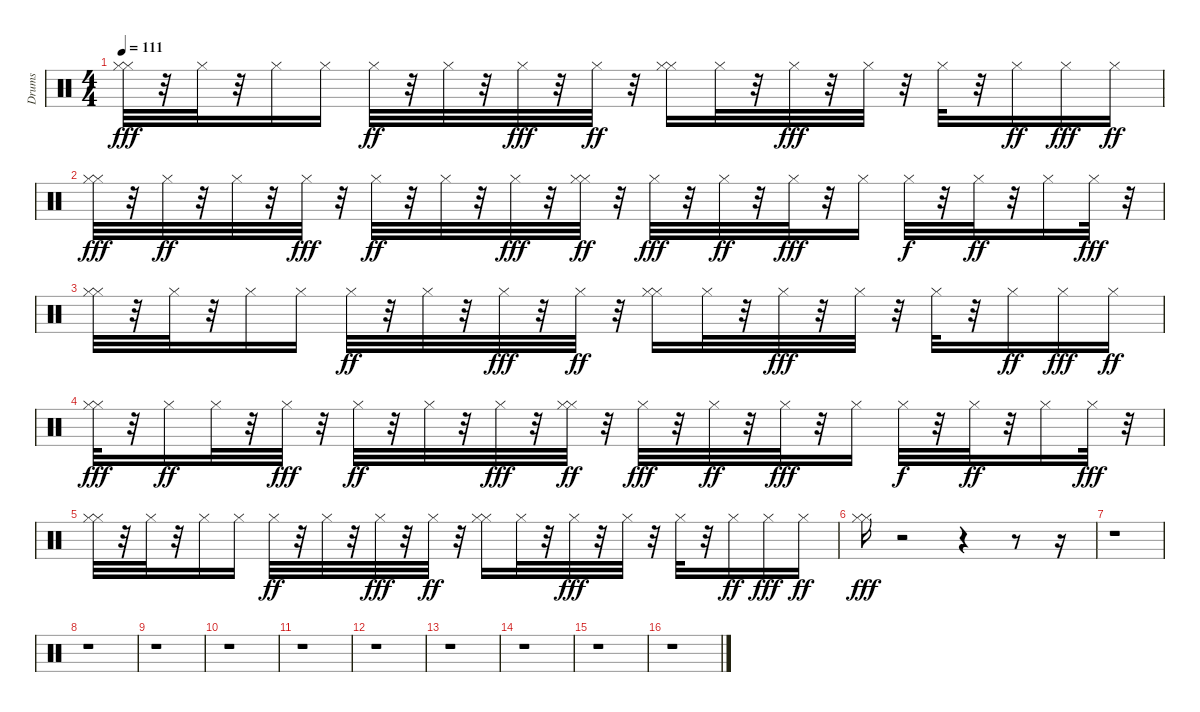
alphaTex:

\track ("Drums" "Drums") {instrument percussion}
\staff {score}
\articulation defaults
\ts (4 4)
\tempo 111
\clef neutral
\ks c
("Hi-Hat (closed)" "Hi-Hat (closed)").32{dy fff} r.32 "Hi-Hat (closed)".32 r.32 "Hi-Hat (closed)".16 "Hi-Hat (closed)".16 "Hi-Hat (closed)".32{dy ff} r.32 "Hi-Hat (closed)".32 r.32 "Hi-Hat (closed)".32{dy fff} r.32 "Hi-Hat (closed)".32{dy ff} r.32 ("Hi-Hat (closed)" "Hi-Hat (closed)").16 "Hi-Hat (closed)".32 r.32 "Hi-Hat (closed)".32{dy fff} r.32 "Hi-Hat (closed)".32 r.32 "Hi-Hat (closed)".32 r.32 "Hi-Hat (closed)".16{dy ff} "Hi-Hat (closed)".16{dy fff} "Hi-Hat (closed)".16{dy ff} |
("Hi-Hat (closed)" "Hi-Hat (closed)").32{dy fff} r.32 "Hi-Hat (closed)".32{dy ff} r.32 "Hi-Hat (closed)".32 r.32 "Hi-Hat (closed)".32{dy fff} r.32 "Hi-Hat (closed)".32{dy ff} r.32 "Hi-Hat (closed)".32 r.32 "Hi-Hat (closed)".32{dy fff} r.32 ("Hi-Hat (closed)" "Hi-Hat (closed)").32{dy ff} r.32 "Hi-Hat (closed)".32{dy fff} r.32 "Hi-Hat (closed)".32{dy ff} r.32 "Hi-Hat (closed)".32{dy fff} r.32 "Hi-Hat (closed)".16 "Hi-Hat (closed)".32{dy f} r.32 "Hi-Hat (closed)".32{dy ff} r.32 "Hi-Hat (closed)".16 "Hi-Hat (closed)".32{dy fff} r.32 |
("Hi-Hat (closed)" "Hi-Hat (closed)").32 r.32 "Hi-Hat (closed)".32 r.32 "Hi-Hat (closed)".16 "Hi-Hat (closed)".16 "Hi-Hat (closed)".32{dy ff} r.32 "Hi-Hat (closed)".32 r.32 "Hi-Hat (closed)".32{dy fff} r.32 "Hi-Hat (closed)".32{dy ff} r.32 ("Hi-Hat (closed)" "Hi-Hat (closed)").16 "Hi-Hat (closed)".32 r.32 "Hi-Hat (closed)".32{dy fff} r.32 "Hi-Hat (closed)".32 r.32 "Hi-Hat (closed)".32 r.32 "Hi-Hat (closed)".16{dy ff} "Hi-Hat (closed)".16{dy fff} "Hi-Hat (closed)".16{dy ff} |
("Hi-Hat (closed)" "Hi-Hat (closed)").32{dy fff} r.32 "Hi-Hat (closed)".16{dy ff} "Hi-Hat (closed)".32 r.32 "Hi-Hat (closed)".32{dy fff} r.32 "Hi-Hat (closed)".32{dy ff} r.32 "Hi-Hat (closed)".32 r.32 "Hi-Hat (closed)".32{dy fff} r.32 ("Hi-Hat (closed)" "Hi-Hat (closed)").32{dy ff} r.32 "Hi-Hat (closed)".32{dy fff} r.32 "Hi-Hat (closed)".32{dy ff} r.32 "Hi-Hat (closed)".32{dy fff} r.32 "Hi-Hat (closed)".16 "Hi-Hat (closed)".32{dy f} r.32 "Hi-Hat (closed)".32{dy ff} r.32 "Hi-Hat (closed)".16 "Hi-Hat (closed)".32{dy fff} r.32 |
("Hi-Hat (closed)" "Hi-Hat (closed)").32 r.32 "Hi-Hat (closed)".32 r.32 "Hi-Hat (closed)".16 "Hi-Hat (closed)".16 "Hi-Hat (closed)".32{dy ff} r.32 "Hi-Hat (closed)".32 r.32 "Hi-Hat (closed)".32{dy fff} r.32 "Hi-Hat (closed)".32{dy ff} r.32 ("Hi-Hat (closed)" "Hi-Hat (closed)").16 "Hi-Hat (closed)".32 r.32 "Hi-Hat (closed)".32{dy fff} r.32 "Hi-Hat (closed)".32 r.32 "Hi-Hat (closed)".32 r.32 "Hi-Hat (closed)".16{dy ff} "Hi-Hat (closed)".16{dy fff} "Hi-Hat (closed)".16{dy ff} |
("Hi-Hat (closed)" "Hi-Hat (closed)").16{dy fff} r.2 r.4 r.8 r.16 |
r.1 |
r.1 |
r.1 |
r.1 |
r.1 |
r.1 |
r.1 |
r.1 |
r.1 |
r.1
